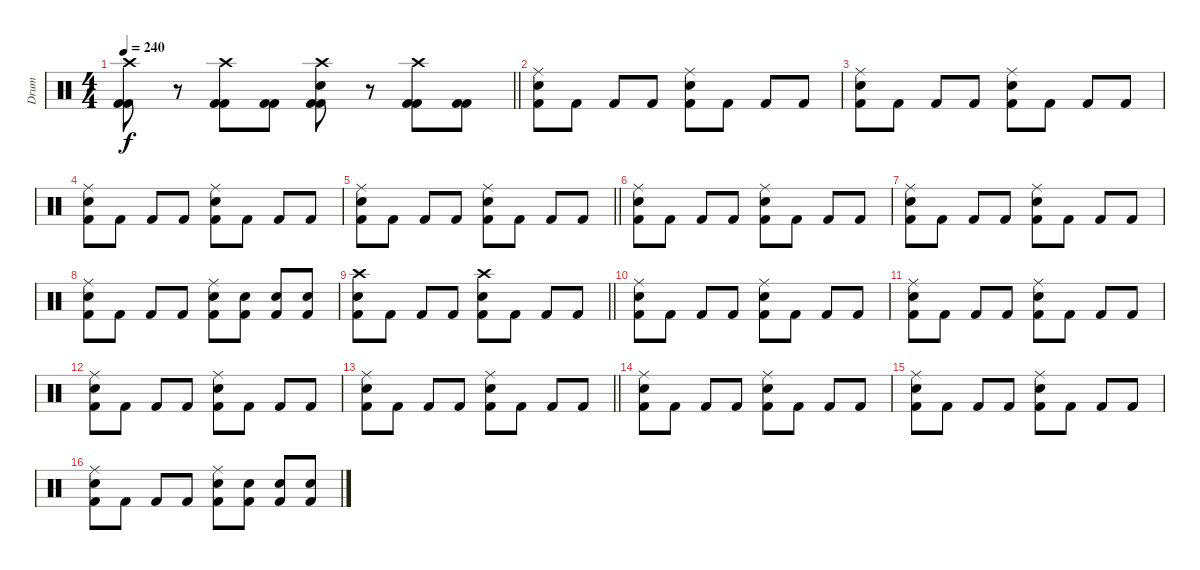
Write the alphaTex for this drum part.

\track ("Drum" "Drum") {instrument percussion}
\staff {score}
\articulation defaults
\ts (4 4)
\tempo 240
\clef neutral
\barLineRight lightlight
\ks c
("Crash high (hit)" "Kick (hit) 2" "Kick (hit) 2").8{dy f} r.8 ("Crash high (hit)" "Kick (hit) 2" "Kick (hit) 2").8 ("Kick (hit) 2" "Kick (hit) 2").8 ("Crash high (hit)" "Electric Snare (hit)" "Kick (hit) 2" "Kick (hit) 2").8 r.8 ("Crash high (hit)" "Kick (hit) 2" "Kick (hit) 2").8 ("Kick (hit) 2" "Kick (hit) 2").8 |
("Ride (middle)" "Electric Snare (hit)" "Kick (hit) 2").8 "Kick (hit) 2".8 "Kick (hit) 2".8 "Kick (hit) 2".8 ("Ride (middle)" "Electric Snare (hit)" "Kick (hit) 2").8 "Kick (hit) 2".8 "Kick (hit) 2".8 "Kick (hit) 2".8 |
("Ride (middle)" "Electric Snare (hit)" "Kick (hit) 2").8 "Kick (hit) 2".8 "Kick (hit) 2".8 "Kick (hit) 2".8 ("Ride (middle)" "Electric Snare (hit)" "Kick (hit) 2").8 "Kick (hit) 2".8 "Kick (hit) 2".8 "Kick (hit) 2".8 |
("Ride (middle)" "Electric Snare (hit)" "Kick (hit) 2").8 "Kick (hit) 2".8 "Kick (hit) 2".8 "Kick (hit) 2".8 ("Ride (middle)" "Electric Snare (hit)" "Kick (hit) 2").8 "Kick (hit) 2".8 "Kick (hit) 2".8 "Kick (hit) 2".8 |
\barLineRight lightlight
("Ride (middle)" "Electric Snare (hit)" "Kick (hit) 2").8 "Kick (hit) 2".8 "Kick (hit) 2".8 "Kick (hit) 2".8 ("Ride (middle)" "Electric Snare (hit)" "Kick (hit) 2").8 "Kick (hit) 2".8 "Kick (hit) 2".8 "Kick (hit) 2".8 |
("Ride (middle)" "Electric Snare (hit)" "Kick (hit) 2").8 "Kick (hit) 2".8 "Kick (hit) 2".8 "Kick (hit) 2".8 ("Ride (middle)" "Electric Snare (hit)" "Kick (hit) 2").8 "Kick (hit) 2".8 "Kick (hit) 2".8 "Kick (hit) 2".8 |
("Ride (middle)" "Electric Snare (hit)" "Kick (hit) 2").8 "Kick (hit) 2".8 "Kick (hit) 2".8 "Kick (hit) 2".8 ("Ride (middle)" "Electric Snare (hit)" "Kick (hit) 2").8 "Kick (hit) 2".8 "Kick (hit) 2".8 "Kick (hit) 2".8 |
("Ride (middle)" "Electric Snare (hit)" "Kick (hit) 2").8 "Kick (hit) 2".8 "Kick (hit) 2".8 "Kick (hit) 2".8 ("Ride (middle)" "Electric Snare (hit)" "Kick (hit) 2").8 ("Electric Snare (hit)" "Kick (hit) 2").8 ("Electric Snare (hit)" "Kick (hit) 2").8 ("Electric Snare (hit)" "Kick (hit) 2").8 |
\barLineRight lightlight
("Crash high (hit)" "Electric Snare (hit)" "Kick (hit) 2").8 "Kick (hit) 2".8 "Kick (hit) 2".8 "Kick (hit) 2".8 ("Crash high (hit)" "Electric Snare (hit)" "Kick (hit) 2").8 "Kick (hit) 2".8 "Kick (hit) 2".8 "Kick (hit) 2".8 |
("Ride (middle)" "Electric Snare (hit)" "Kick (hit) 2").8 "Kick (hit) 2".8 "Kick (hit) 2".8 "Kick (hit) 2".8 ("Ride (middle)" "Electric Snare (hit)" "Kick (hit) 2").8 "Kick (hit) 2".8 "Kick (hit) 2".8 "Kick (hit) 2".8 |
("Ride (middle)" "Electric Snare (hit)" "Kick (hit) 2").8 "Kick (hit) 2".8 "Kick (hit) 2".8 "Kick (hit) 2".8 ("Ride (middle)" "Electric Snare (hit)" "Kick (hit) 2").8 "Kick (hit) 2".8 "Kick (hit) 2".8 "Kick (hit) 2".8 |
("Ride (middle)" "Electric Snare (hit)" "Kick (hit) 2").8 "Kick (hit) 2".8 "Kick (hit) 2".8 "Kick (hit) 2".8 ("Ride (middle)" "Electric Snare (hit)" "Kick (hit) 2").8 "Kick (hit) 2".8 "Kick (hit) 2".8 "Kick (hit) 2".8 |
\barLineRight lightlight
("Ride (middle)" "Electric Snare (hit)" "Kick (hit) 2").8 "Kick (hit) 2".8 "Kick (hit) 2".8 "Kick (hit) 2".8 ("Ride (middle)" "Electric Snare (hit)" "Kick (hit) 2").8 "Kick (hit) 2".8 "Kick (hit) 2".8 "Kick (hit) 2".8 |
("Ride (middle)" "Electric Snare (hit)" "Kick (hit) 2").8 "Kick (hit) 2".8 "Kick (hit) 2".8 "Kick (hit) 2".8 ("Ride (middle)" "Electric Snare (hit)" "Kick (hit) 2").8 "Kick (hit) 2".8 "Kick (hit) 2".8 "Kick (hit) 2".8 |
("Ride (middle)" "Electric Snare (hit)" "Kick (hit) 2").8 "Kick (hit) 2".8 "Kick (hit) 2".8 "Kick (hit) 2".8 ("Ride (middle)" "Electric Snare (hit)" "Kick (hit) 2").8 "Kick (hit) 2".8 "Kick (hit) 2".8 "Kick (hit) 2".8 |
("Ride (middle)" "Electric Snare (hit)" "Kick (hit) 2").8 "Kick (hit) 2".8 "Kick (hit) 2".8 "Kick (hit) 2".8 ("Ride (middle)" "Electric Snare (hit)" "Kick (hit) 2").8 ("Electric Snare (hit)" "Kick (hit) 2").8 ("Electric Snare (hit)" "Kick (hit) 2").8 ("Electric Snare (hit)" "Kick (hit) 2").8
